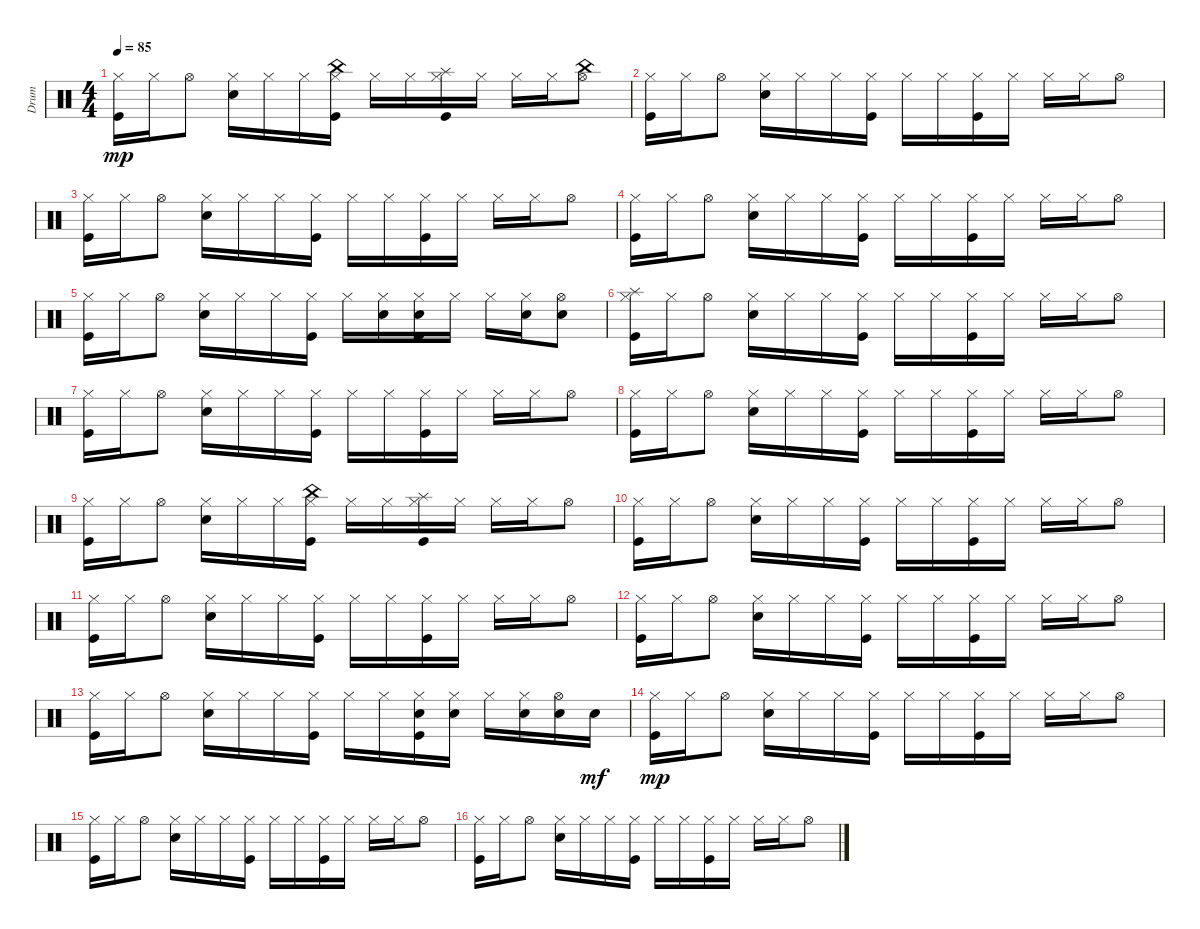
\track ("Drum" "Drum") {instrument percussion}
\staff {score}
\articulation defaults
\ts (4 4)
\tempo 85
\clef neutral
\ks c
("Hi-Hat (closed)" "Kick (hit)").16{dy mp} "Hi-Hat (closed)".16 "Hi-Hat (open)".8 ("Hi-Hat (closed)" "Snare (hit) 2").16 "Hi-Hat (closed)".16 "Hi-Hat (closed)".16 ("Hi-Hat (closed)" "Kick (hit)" "China (hit)").16 "Hi-Hat (closed)".16 "Hi-Hat (closed)".16 ("Hi-Hat (closed)" "Kick (hit)" "Splash (hit)").16 "Hi-Hat (closed)".16 "Hi-Hat (closed)".16 "Hi-Hat (closed)".16 ("Hi-Hat (open)" "China (hit)").8 |
("Kick (hit)" "Hi-Hat (closed)").16 "Hi-Hat (closed)".16 "Hi-Hat (open)".8 ("Snare (hit) 2" "Hi-Hat (closed)").16 "Hi-Hat (closed)".16 "Hi-Hat (closed)".16 ("Kick (hit)" "Hi-Hat (closed)").16 "Hi-Hat (closed)".16 "Hi-Hat (closed)".16 ("Hi-Hat (closed)" "Kick (hit)").16 "Hi-Hat (closed)".16 "Hi-Hat (closed)".16 "Hi-Hat (closed)".16 "Hi-Hat (open)".8 |
("Kick (hit)" "Hi-Hat (closed)").16 "Hi-Hat (closed)".16 "Hi-Hat (open)".8 ("Snare (hit) 2" "Hi-Hat (closed)").16 "Hi-Hat (closed)".16 "Hi-Hat (closed)".16 ("Hi-Hat (closed)" "Kick (hit)").16 "Hi-Hat (closed)".16 "Hi-Hat (closed)".16 ("Kick (hit)" "Hi-Hat (closed)").16 "Hi-Hat (closed)".16 "Hi-Hat (closed)".16 "Hi-Hat (closed)".16 "Hi-Hat (open)".8 |
("Kick (hit)" "Hi-Hat (closed)").16 "Hi-Hat (closed)".16 "Hi-Hat (open)".8 ("Snare (hit) 2" "Hi-Hat (closed)").16 "Hi-Hat (closed)".16 "Hi-Hat (closed)".16 ("Kick (hit)" "Hi-Hat (closed)").16 "Hi-Hat (closed)".16 "Hi-Hat (closed)".16 ("Kick (hit)" "Hi-Hat (closed)").16 "Hi-Hat (closed)".16 "Hi-Hat (closed)".16 "Hi-Hat (closed)".16 "Hi-Hat (open)".8 |
("Kick (hit)" "Hi-Hat (closed)").16 "Hi-Hat (closed)".16 "Hi-Hat (open)".8 ("Snare (hit) 2" "Hi-Hat (closed)").16 "Hi-Hat (closed)".16 "Hi-Hat (closed)".16 ("Kick (hit)" "Hi-Hat (closed)").16 "Hi-Hat (closed)".16 ("Snare (hit) 2" "Hi-Hat (closed)").16 ("Kick (hit)" "Hi-Hat (closed)" "Snare (hit) 2").16 "Hi-Hat (closed)".16 "Hi-Hat (closed)".16 ("Hi-Hat (closed)" "Snare (hit) 2").16 ("Hi-Hat (open)" "Snare (hit) 2").8 |
("Splash (hit)" "Hi-Hat (closed)" "Kick (hit)").16 "Hi-Hat (closed)".16 "Hi-Hat (open)".8 ("Hi-Hat (closed)" "Snare (hit) 2").16 "Hi-Hat (closed)".16 "Hi-Hat (closed)".16 ("Hi-Hat (closed)" "Kick (hit)").16 "Hi-Hat (closed)".16 "Hi-Hat (closed)".16 ("Hi-Hat (closed)" "Kick (hit)").16 "Hi-Hat (closed)".16 "Hi-Hat (closed)".16 "Hi-Hat (closed)".16 "Hi-Hat (open)".8 |
("Kick (hit)" "Hi-Hat (closed)").16 "Hi-Hat (closed)".16 "Hi-Hat (open)".8 ("Snare (hit) 2" "Hi-Hat (closed)").16 "Hi-Hat (closed)".16 "Hi-Hat (closed)".16 ("Hi-Hat (closed)" "Kick (hit)").16 "Hi-Hat (closed)".16 "Hi-Hat (closed)".16 ("Hi-Hat (closed)" "Kick (hit)").16 "Hi-Hat (closed)".16 "Hi-Hat (closed)".16 "Hi-Hat (closed)".16 "Hi-Hat (open)".8 |
("Hi-Hat (closed)" "Kick (hit)").16 "Hi-Hat (closed)".16 "Hi-Hat (open)".8 ("Hi-Hat (closed)" "Snare (hit) 2").16 "Hi-Hat (closed)".16 "Hi-Hat (closed)".16 ("Kick (hit)" "Hi-Hat (closed)").16 "Hi-Hat (closed)".16 "Hi-Hat (closed)".16 ("Kick (hit)" "Hi-Hat (closed)").16 "Hi-Hat (closed)".16 "Hi-Hat (closed)".16 "Hi-Hat (closed)".16 "Hi-Hat (open)".8 |
("Hi-Hat (closed)" "Kick (hit)").16 "Hi-Hat (closed)".16 "Hi-Hat (open)".8 ("Hi-Hat (closed)" "Snare (hit) 2").16 "Hi-Hat (closed)".16 "Hi-Hat (closed)".16 ("China (hit)" "Hi-Hat (closed)" "Kick (hit)").16 "Hi-Hat (closed)".16 "Hi-Hat (closed)".16 ("Splash (hit)" "Kick (hit)" "Hi-Hat (closed)").16 "Hi-Hat (closed)".16 "Hi-Hat (closed)".16 "Hi-Hat (closed)".16 "Hi-Hat (open)".8 |
("Hi-Hat (closed)" "Kick (hit)").16 "Hi-Hat (closed)".16 "Hi-Hat (open)".8 ("Hi-Hat (closed)" "Snare (hit) 2").16 "Hi-Hat (closed)".16 "Hi-Hat (closed)".16 ("Hi-Hat (closed)" "Kick (hit)").16 "Hi-Hat (closed)".16 "Hi-Hat (closed)".16 ("Hi-Hat (closed)" "Kick (hit)").16 "Hi-Hat (closed)".16 "Hi-Hat (closed)".16 "Hi-Hat (closed)".16 "Hi-Hat (open)".8 |
("Kick (hit)" "Hi-Hat (closed)").16 "Hi-Hat (closed)".16 "Hi-Hat (open)".8 ("Snare (hit) 2" "Hi-Hat (closed)").16 "Hi-Hat (closed)".16 "Hi-Hat (closed)".16 ("Kick (hit)" "Hi-Hat (closed)").16 "Hi-Hat (closed)".16 "Hi-Hat (closed)".16 ("Kick (hit)" "Hi-Hat (closed)").16 "Hi-Hat (closed)".16 "Hi-Hat (closed)".16 "Hi-Hat (closed)".16 "Hi-Hat (open)".8 |
("Hi-Hat (closed)" "Kick (hit)").16 "Hi-Hat (closed)".16 "Hi-Hat (open)".8 ("Hi-Hat (closed)" "Snare (hit) 2").16 "Hi-Hat (closed)".16 "Hi-Hat (closed)".16 ("Kick (hit)" "Hi-Hat (closed)").16 "Hi-Hat (closed)".16 "Hi-Hat (closed)".16 ("Hi-Hat (closed)" "Kick (hit)").16 "Hi-Hat (closed)".16 "Hi-Hat (closed)".16 "Hi-Hat (closed)".16 "Hi-Hat (open)".8 |
("Kick (hit)" "Hi-Hat (closed)").16 "Hi-Hat (closed)".16 "Hi-Hat (open)".8 ("Hi-Hat (closed)" "Snare (hit) 2").16 "Hi-Hat (closed)".16 "Hi-Hat (closed)".16 ("Hi-Hat (closed)" "Kick (hit)").16 "Hi-Hat (closed)".16 "Hi-Hat (closed)".16 ("Hi-Hat (closed)" "Snare (hit) 2" "Kick (hit)").16 ("Snare (hit) 2" "Hi-Hat (closed)").16 "Hi-Hat (closed)".16 ("Hi-Hat (closed)" "Snare (hit) 2").16 ("Hi-Hat (open)" "Snare (hit) 2").16 "Snare (hit) 2".16{dy mf} |
("Kick (hit)" "Hi-Hat (closed)").16{dy mp} "Hi-Hat (closed)".16 "Hi-Hat (open)".8 ("Snare (hit) 2" "Hi-Hat (closed)").16 "Hi-Hat (closed)".16 "Hi-Hat (closed)".16 ("Kick (hit)" "Hi-Hat (closed)").16 "Hi-Hat (closed)".16 "Hi-Hat (closed)".16 ("Hi-Hat (closed)" "Kick (hit)").16 "Hi-Hat (closed)".16 "Hi-Hat (closed)".16 "Hi-Hat (closed)".16 "Hi-Hat (open)".8 |
("Hi-Hat (closed)" "Kick (hit)").16 "Hi-Hat (closed)".16 "Hi-Hat (open)".8 ("Hi-Hat (closed)" "Snare (hit) 2").16 "Hi-Hat (closed)".16 "Hi-Hat (closed)".16 ("Kick (hit)" "Hi-Hat (closed)").16 "Hi-Hat (closed)".16 "Hi-Hat (closed)".16 ("Kick (hit)" "Hi-Hat (closed)").16 "Hi-Hat (closed)".16 "Hi-Hat (closed)".16 "Hi-Hat (closed)".16 "Hi-Hat (open)".8 |
("Kick (hit)" "Hi-Hat (closed)").16 "Hi-Hat (closed)".16 "Hi-Hat (open)".8 ("Snare (hit) 2" "Hi-Hat (closed)").16 "Hi-Hat (closed)".16 "Hi-Hat (closed)".16 ("Kick (hit)" "Hi-Hat (closed)").16 "Hi-Hat (closed)".16 "Hi-Hat (closed)".16 ("Kick (hit)" "Hi-Hat (closed)").16 "Hi-Hat (closed)".16 "Hi-Hat (closed)".16 "Hi-Hat (closed)".16 "Hi-Hat (open)".8
